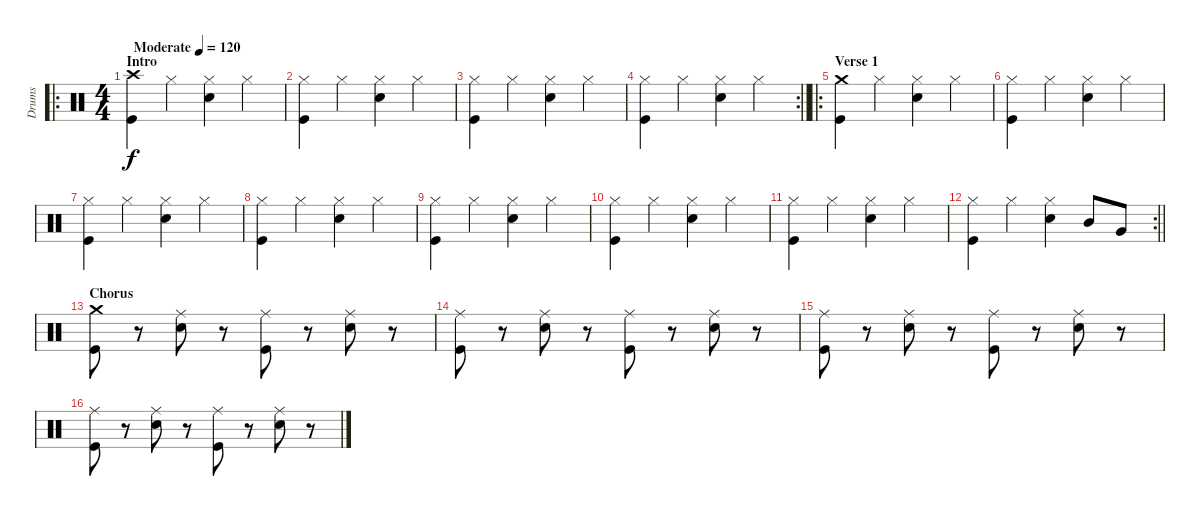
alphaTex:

\track ("Drums" "Drums") {instrument percussion}
\staff {score}
\articulation defaults
\ro
\ts (4 4)
\section ("" "Intro")
\tempo (120 "Moderate")
\clef neutral
\ks c
("Crash high (hit)" "Kick (hit)").4{dy f} "Hi-Hat (closed)".4 ("Hi-Hat (closed)" "Electric Snare (hit)").4 "Hi-Hat (closed)".4 |
("Hi-Hat (closed)" "Kick (hit)").4 "Hi-Hat (closed)".4 ("Hi-Hat (closed)" "Electric Snare (hit)").4 "Hi-Hat (closed)".4 |
("Hi-Hat (closed)" "Kick (hit)").4 "Hi-Hat (closed)".4 ("Hi-Hat (closed)" "Electric Snare (hit)").4 "Hi-Hat (closed)".4 |
\rc 2
\barLineRight lightlight
("Hi-Hat (closed)" "Kick (hit)").4 "Hi-Hat (closed)".4 ("Hi-Hat (closed)" "Electric Snare (hit)").4 "Hi-Hat (closed)".4 |
\ro
\section ("" "Verse 1")
("Crash medium (hit)" "Kick (hit)").4 "Hi-Hat (closed)".4 ("Hi-Hat (closed)" "Electric Snare (hit)").4 "Hi-Hat (closed)".4 |
("Hi-Hat (closed)" "Kick (hit)").4 "Hi-Hat (closed)".4 ("Hi-Hat (closed)" "Electric Snare (hit)").4 "Hi-Hat (closed)".4 |
("Hi-Hat (closed)" "Kick (hit)").4 "Hi-Hat (closed)".4 ("Hi-Hat (closed)" "Electric Snare (hit)").4 "Hi-Hat (closed)".4 |
("Hi-Hat (closed)" "Kick (hit)").4 "Hi-Hat (closed)".4 ("Hi-Hat (closed)" "Electric Snare (hit)").4 "Hi-Hat (closed)".4 |
("Hi-Hat (closed)" "Kick (hit)").4 "Hi-Hat (closed)".4 ("Hi-Hat (closed)" "Electric Snare (hit)").4 "Hi-Hat (closed)".4 |
("Hi-Hat (closed)" "Kick (hit)").4 "Hi-Hat (closed)".4 ("Hi-Hat (closed)" "Electric Snare (hit)").4 "Hi-Hat (closed)".4 |
("Hi-Hat (closed)" "Kick (hit)").4 "Hi-Hat (closed)".4 ("Hi-Hat (closed)" "Electric Snare (hit)").4 "Hi-Hat (closed)".4 |
\rc 2
\barLineRight lightlight
("Hi-Hat (closed)" "Kick (hit)").4 "Hi-Hat (closed)".4 ("Hi-Hat (closed)" "Electric Snare (hit)").4 "Mid Tom (hit)".8 "Very Low Tom (hit)".8 |
\section ("" "Chorus")
("Crash medium (hit)" "Kick (hit)").8 r.8 ("Ride (middle)" "Electric Snare (hit)").8 r.8 ("Ride (middle)" "Kick (hit)").8 r.8 ("Ride (middle)" "Electric Snare (hit)").8 r.8 |
("Ride (middle)" "Kick (hit)").8 r.8 ("Ride (middle)" "Electric Snare (hit)").8 r.8 ("Ride (middle)" "Kick (hit)").8 r.8 ("Ride (middle)" "Electric Snare (hit)").8 r.8 |
("Ride (middle)" "Kick (hit)").8 r.8 ("Ride (middle)" "Electric Snare (hit)").8 r.8 ("Ride (middle)" "Kick (hit)").8 r.8 ("Ride (middle)" "Electric Snare (hit)").8 r.8 |
("Ride (middle)" "Kick (hit)").8 r.8 ("Ride (middle)" "Electric Snare (hit)").8 r.8 ("Ride (middle)" "Kick (hit)").8 r.8 ("Ride (middle)" "Electric Snare (hit)").8 r.8
